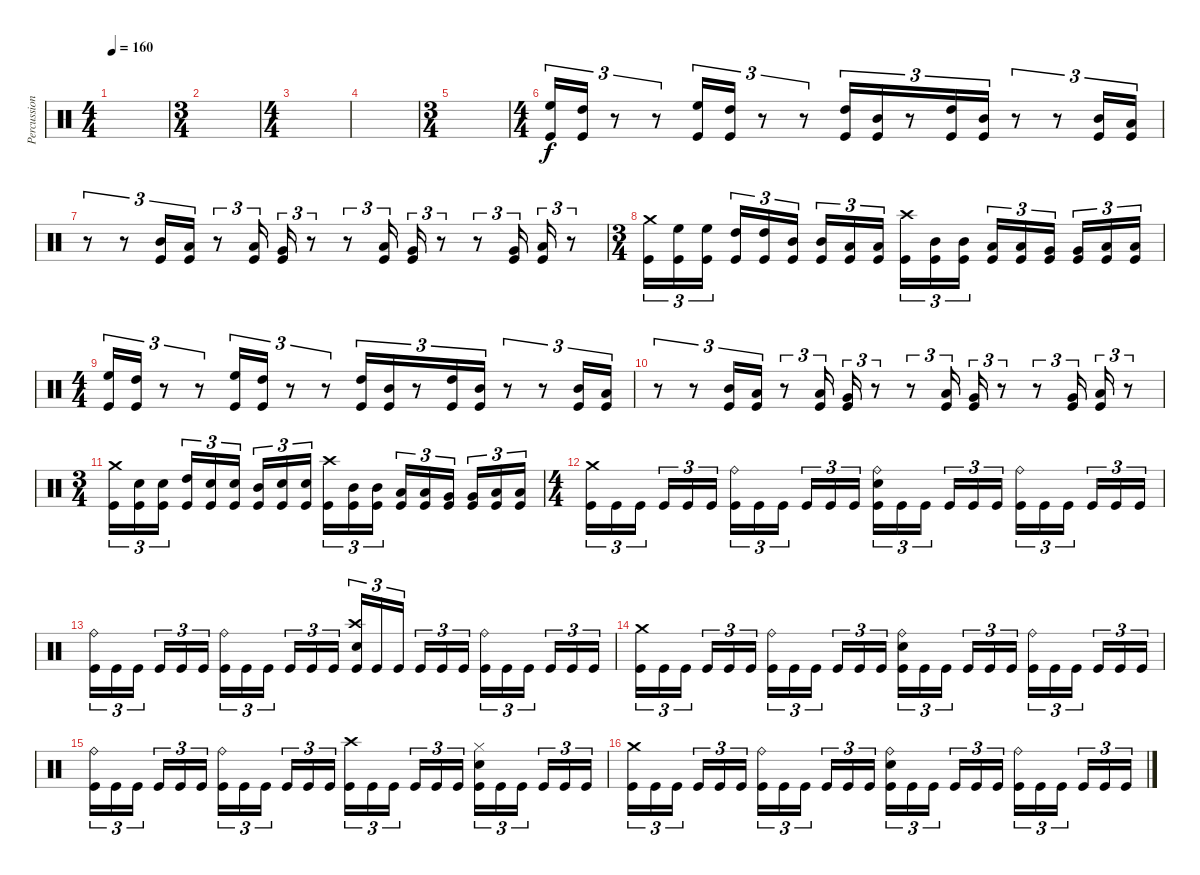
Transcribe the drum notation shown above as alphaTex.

\track ("Percussion" "Percussion") {instrument percussion}
\staff {score}
\articulation defaults
\ts (4 4)
\tempo 160
\clef neutral
\ks c
|
\ts (3 4)
|
\ts (4 4)
|
|
\ts (3 4)
|
\ts (4 4)
("High Floor Tom (hit)" "Kick (hit)").16{tu (3 2)} ("High Tom (hit)" "Kick (hit)").16{tu (3 2)} r.8{tu (3 2)} r.8{tu (3 2)} ("High Floor Tom (hit)" "Kick (hit)").16{tu (3 2)} ("High Tom (hit)" "Kick (hit)").16{tu (3 2)} r.8{tu (3 2)} r.8{tu (3 2)} ("High Tom (hit)" "Kick (hit)").16{tu (3 2)} ("Mid Tom (hit)" "Kick (hit)").16{tu (3 2)} r.8{tu (3 2)} ("High Tom (hit)" "Kick (hit)").16{tu (3 2)} ("Mid Tom (hit)" "Kick (hit)").16{tu (3 2)} r.8{tu (3 2)} r.8{tu (3 2)} ("Mid Tom (hit)" "Kick (hit)").16{tu (3 2)} ("Low Tom (hit)" "Kick (hit)").16{tu (3 2)} |
r.8{tu (3 2)} r.8{tu (3 2)} ("Mid Tom (hit)" "Kick (hit)").16{tu (3 2)} ("Low Tom (hit)" "Kick (hit)").16{tu (3 2)} r.8{tu (3 2)} ("Low Tom (hit)" "Kick (hit)").16{tu (3 2)} ("Very Low Tom (hit)" "Kick (hit)").16{tu (3 2)} r.8{tu (3 2)} r.8{tu (3 2)} ("Low Tom (hit)" "Kick (hit)").16{tu (3 2)} ("Very Low Tom (hit)" "Kick (hit)").16{tu (3 2)} r.8{tu (3 2)} r.8{tu (3 2)} ("Very Low Tom (hit)" "Kick (hit)").16{tu (3 2)} ("Low Floor Tom (hit)" "Kick (hit)").16{tu (3 2)} r.8{tu (3 2)} |
\ts (3 4)
("Crash medium (hit)" "Kick (hit)").16{tu (3 2)} ("High Floor Tom (hit)" "Kick (hit)").16{tu (3 2)} ("High Floor Tom (hit)" "Kick (hit)").16{tu (3 2) beam splitsecondary} ("High Tom (hit)" "Kick (hit)").16{tu (3 2)} ("High Tom (hit)" "Kick (hit)").16{tu (3 2)} ("Mid Tom (hit)" "Kick (hit)").16{tu (3 2)} ("Mid Tom (hit)" "Kick (hit)").16{tu (3 2)} ("Low Tom (hit)" "Kick (hit)").16{tu (3 2)} ("Low Tom (hit)" "Kick (hit)").16{tu (3 2) beam splitsecondary} ("Crash high (hit)" "Kick (hit)").16{tu (3 2)} ("Mid Tom (hit)" "Kick (hit)").16{tu (3 2)} ("Mid Tom (hit)" "Kick (hit)").16{tu (3 2)} ("Low Tom (hit)" "Kick (hit)").16{tu (3 2)} ("Low Tom (hit)" "Kick (hit)").16{tu (3 2)} ("Very Low Tom (hit)" "Kick (hit)").16{tu (3 2) beam splitsecondary} ("Very Low Tom (hit)" "Kick (hit)").16{tu (3 2)} ("Low Floor Tom (hit)" "Kick (hit)").16{tu (3 2)} ("Low Floor Tom (hit)" "Kick (hit)").16{tu (3 2)} |
\ts (4 4)
("High Floor Tom (hit)" "Kick (hit)").16{tu (3 2)} ("High Tom (hit)" "Kick (hit)").16{tu (3 2)} r.8{tu (3 2)} r.8{tu (3 2)} ("High Floor Tom (hit)" "Kick (hit)").16{tu (3 2)} ("High Tom (hit)" "Kick (hit)").16{tu (3 2)} r.8{tu (3 2)} r.8{tu (3 2)} ("High Tom (hit)" "Kick (hit)").16{tu (3 2)} ("Mid Tom (hit)" "Kick (hit)").16{tu (3 2)} r.8{tu (3 2)} ("High Tom (hit)" "Kick (hit)").16{tu (3 2)} ("Mid Tom (hit)" "Kick (hit)").16{tu (3 2)} r.8{tu (3 2)} r.8{tu (3 2)} ("Mid Tom (hit)" "Kick (hit)").16{tu (3 2)} ("Low Tom (hit)" "Kick (hit)").16{tu (3 2)} |
r.8{tu (3 2)} r.8{tu (3 2)} ("Mid Tom (hit)" "Kick (hit)").16{tu (3 2)} ("Low Tom (hit)" "Kick (hit)").16{tu (3 2)} r.8{tu (3 2)} ("Low Tom (hit)" "Kick (hit)").16{tu (3 2)} ("Very Low Tom (hit)" "Kick (hit)").16{tu (3 2)} r.8{tu (3 2)} r.8{tu (3 2)} ("Low Tom (hit)" "Kick (hit)").16{tu (3 2)} ("Very Low Tom (hit)" "Kick (hit)").16{tu (3 2)} r.8{tu (3 2)} r.8{tu (3 2)} ("Very Low Tom (hit)" "Kick (hit)").16{tu (3 2)} ("Low Floor Tom (hit)" "Kick (hit)").16{tu (3 2)} r.8{tu (3 2)} |
\ts (3 4)
("Crash medium (hit)" "Kick (hit)").16{tu (3 2)} ("Snare (hit) 2" "Kick (hit)").16{tu (3 2)} ("Snare (hit) 2" "Kick (hit)").16{tu (3 2) beam splitsecondary} ("High Tom (hit)" "Kick (hit)").16{tu (3 2)} ("Snare (hit) 2" "Kick (hit)").16{tu (3 2)} ("Snare (hit) 2" "Kick (hit)").16{tu (3 2)} ("Mid Tom (hit)" "Kick (hit)").16{tu (3 2)} ("Snare (hit) 2" "Kick (hit)").16{tu (3 2)} ("Snare (hit) 2" "Kick (hit)").16{tu (3 2) beam splitsecondary} ("Crash high (hit)" "Kick (hit)").16{tu (3 2)} ("Mid Tom (hit)" "Kick (hit)").16{tu (3 2)} ("Mid Tom (hit)" "Kick (hit)").16{tu (3 2)} ("Low Tom (hit)" "Kick (hit)").16{tu (3 2)} ("Low Tom (hit)" "Kick (hit)").16{tu (3 2)} ("Very Low Tom (hit)" "Kick (hit)").16{tu (3 2) beam splitsecondary} ("Very Low Tom (hit)" "Kick (hit)").16{tu (3 2)} ("Low Floor Tom (hit)" "Kick (hit)").16{tu (3 2)} ("Low Floor Tom (hit)" "Kick (hit)").16{tu (3 2)} |
\ts (4 4)
("Crash medium (hit)" "Kick (hit)").16{tu (3 2)} "Kick (hit)".16{tu (3 2)} "Kick (hit)".16{tu (3 2) beam splitsecondary} "Kick (hit)".16{tu (3 2)} "Kick (hit)".16{tu (3 2)} "Kick (hit)".16{tu (3 2)} ("Ride (bell)" "Kick (hit)").16{tu (3 2)} "Kick (hit)".16{tu (3 2)} "Kick (hit)".16{tu (3 2) beam splitsecondary} "Kick (hit)".16{tu (3 2)} "Kick (hit)".16{tu (3 2)} "Kick (hit)".16{tu (3 2)} ("Ride (bell)" "Snare (hit) 2" "Kick (hit)").16{tu (3 2)} "Kick (hit)".16{tu (3 2)} "Kick (hit)".16{tu (3 2) beam splitsecondary} "Kick (hit)".16{tu (3 2)} "Kick (hit)".16{tu (3 2)} "Kick (hit)".16{tu (3 2)} ("Ride (bell)" "Kick (hit)").16{tu (3 2)} "Kick (hit)".16{tu (3 2)} "Kick (hit)".16{tu (3 2) beam splitsecondary} "Kick (hit)".16{tu (3 2)} "Kick (hit)".16{tu (3 2)} "Kick (hit)".16{tu (3 2)} |
("Ride (bell)" "Kick (hit)").16{tu (3 2)} "Kick (hit)".16{tu (3 2)} "Kick (hit)".16{tu (3 2) beam splitsecondary} "Kick (hit)".16{tu (3 2)} "Kick (hit)".16{tu (3 2)} "Kick (hit)".16{tu (3 2)} ("Ride (bell)" "Kick (hit)").16{tu (3 2)} "Kick (hit)".16{tu (3 2)} "Kick (hit)".16{tu (3 2) beam splitsecondary} "Kick (hit)".16{tu (3 2)} "Kick (hit)".16{tu (3 2)} "Kick (hit)".16{tu (3 2)} ("Crash high (hit)" "Snare (hit) 2" "Kick (hit)").16{tu (3 2)} "Kick (hit)".16{tu (3 2)} "Kick (hit)".16{tu (3 2) beam splitsecondary} "Kick (hit)".16{tu (3 2)} "Kick (hit)".16{tu (3 2)} "Kick (hit)".16{tu (3 2)} ("Ride (bell)" "Kick (hit)").16{tu (3 2)} "Kick (hit)".16{tu (3 2)} "Kick (hit)".16{tu (3 2) beam splitsecondary} "Kick (hit)".16{tu (3 2)} "Kick (hit)".16{tu (3 2)} "Kick (hit)".16{tu (3 2)} |
("Crash medium (hit)" "Kick (hit)").16{tu (3 2)} "Kick (hit)".16{tu (3 2)} "Kick (hit)".16{tu (3 2) beam splitsecondary} "Kick (hit)".16{tu (3 2)} "Kick (hit)".16{tu (3 2)} "Kick (hit)".16{tu (3 2)} ("Ride (bell)" "Kick (hit)").16{tu (3 2)} "Kick (hit)".16{tu (3 2)} "Kick (hit)".16{tu (3 2) beam splitsecondary} "Kick (hit)".16{tu (3 2)} "Kick (hit)".16{tu (3 2)} "Kick (hit)".16{tu (3 2)} ("Ride (bell)" "Snare (hit) 2" "Kick (hit)").16{tu (3 2)} "Kick (hit)".16{tu (3 2)} "Kick (hit)".16{tu (3 2) beam splitsecondary} "Kick (hit)".16{tu (3 2)} "Kick (hit)".16{tu (3 2)} "Kick (hit)".16{tu (3 2)} ("Ride (bell)" "Kick (hit)").16{tu (3 2)} "Kick (hit)".16{tu (3 2)} "Kick (hit)".16{tu (3 2) beam splitsecondary} "Kick (hit)".16{tu (3 2)} "Kick (hit)".16{tu (3 2)} "Kick (hit)".16{tu (3 2)} |
("Ride (bell)" "Kick (hit)").16{tu (3 2)} "Kick (hit)".16{tu (3 2)} "Kick (hit)".16{tu (3 2) beam splitsecondary} "Kick (hit)".16{tu (3 2)} "Kick (hit)".16{tu (3 2)} "Kick (hit)".16{tu (3 2)} ("Ride (bell)" "Kick (hit)").16{tu (3 2)} "Kick (hit)".16{tu (3 2)} "Kick (hit)".16{tu (3 2) beam splitsecondary} "Kick (hit)".16{tu (3 2)} "Kick (hit)".16{tu (3 2)} "Kick (hit)".16{tu (3 2)} ("Crash high (hit)" "Kick (hit)").16{tu (3 2)} "Kick (hit)".16{tu (3 2)} "Kick (hit)".16{tu (3 2) beam splitsecondary} "Kick (hit)".16{tu (3 2)} "Kick (hit)".16{tu (3 2)} "Kick (hit)".16{tu (3 2)} ("Hi-Hat (closed)" "Snare (hit) 2" "Kick (hit)").16{tu (3 2)} "Kick (hit)".16{tu (3 2)} "Kick (hit)".16{tu (3 2) beam splitsecondary} "Kick (hit)".16{tu (3 2)} "Kick (hit)".16{tu (3 2)} "Kick (hit)".16{tu (3 2)} |
("Crash medium (hit)" "Kick (hit)").16{tu (3 2)} "Kick (hit)".16{tu (3 2)} "Kick (hit)".16{tu (3 2) beam splitsecondary} "Kick (hit)".16{tu (3 2)} "Kick (hit)".16{tu (3 2)} "Kick (hit)".16{tu (3 2)} ("Ride (bell)" "Kick (hit)").16{tu (3 2)} "Kick (hit)".16{tu (3 2)} "Kick (hit)".16{tu (3 2) beam splitsecondary} "Kick (hit)".16{tu (3 2)} "Kick (hit)".16{tu (3 2)} "Kick (hit)".16{tu (3 2)} ("Ride (bell)" "Snare (hit) 2" "Kick (hit)").16{tu (3 2)} "Kick (hit)".16{tu (3 2)} "Kick (hit)".16{tu (3 2) beam splitsecondary} "Kick (hit)".16{tu (3 2)} "Kick (hit)".16{tu (3 2)} "Kick (hit)".16{tu (3 2)} ("Ride (bell)" "Kick (hit)").16{tu (3 2)} "Kick (hit)".16{tu (3 2)} "Kick (hit)".16{tu (3 2) beam splitsecondary} "Kick (hit)".16{tu (3 2)} "Kick (hit)".16{tu (3 2)} "Kick (hit)".16{tu (3 2)}
